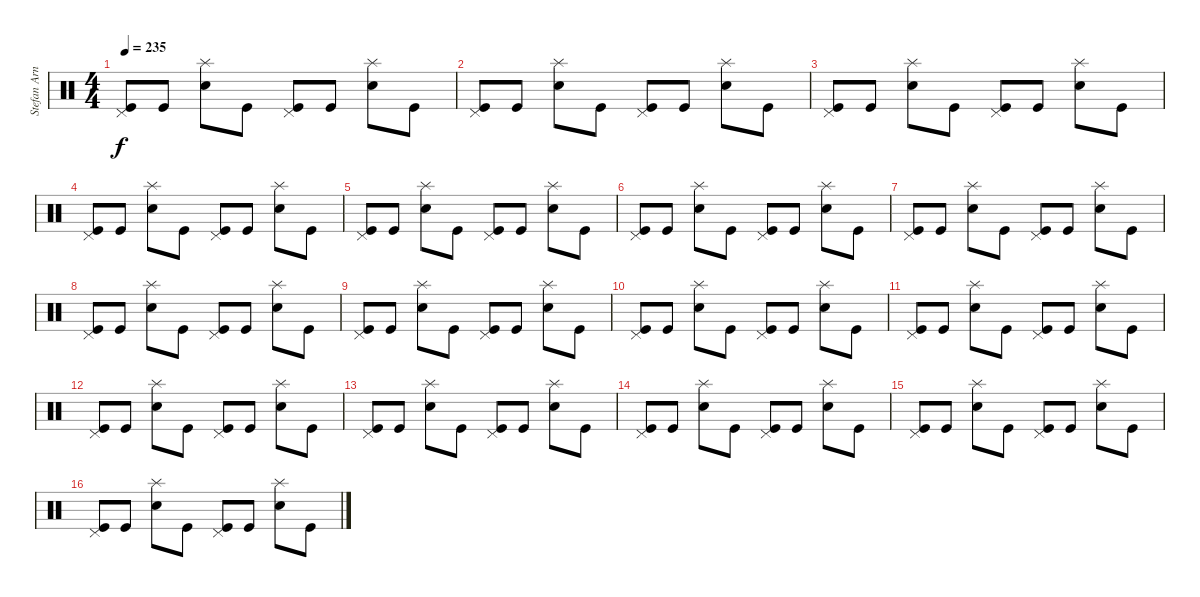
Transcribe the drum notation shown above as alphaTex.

\track ("Stefan Arnold" "Stefan Arn") {instrument percussion}
\staff {score}
\articulation defaults
\ts (4 4)
\tempo 235
\clef neutral
\ks c
("Kick (hit)" "Pedal Hi-Hat (hit)").8{dy f} "Kick (hit)".8 ("Electric Snare (hit)" "Splash (hit)").8 "Kick (hit)".8 ("Kick (hit)" "Pedal Hi-Hat (hit)").8 "Kick (hit)".8 ("Electric Snare (hit)" "Splash (hit)").8 "Kick (hit)".8 |
("Kick (hit)" "Pedal Hi-Hat (hit)").8 "Kick (hit)".8 ("Electric Snare (hit)" "Splash (hit)").8 "Kick (hit)".8 ("Kick (hit)" "Pedal Hi-Hat (hit)").8 "Kick (hit)".8 ("Electric Snare (hit)" "Splash (hit)").8 "Kick (hit)".8 |
("Kick (hit)" "Pedal Hi-Hat (hit)").8 "Kick (hit)".8 ("Electric Snare (hit)" "Splash (hit)").8 "Kick (hit)".8 ("Kick (hit)" "Pedal Hi-Hat (hit)").8 "Kick (hit)".8 ("Electric Snare (hit)" "Splash (hit)").8 "Kick (hit)".8 |
("Kick (hit)" "Pedal Hi-Hat (hit)").8 "Kick (hit)".8 ("Electric Snare (hit)" "Splash (hit)").8 "Kick (hit)".8 ("Kick (hit)" "Pedal Hi-Hat (hit)").8 "Kick (hit)".8 ("Electric Snare (hit)" "Splash (hit)").8 "Kick (hit)".8 |
("Kick (hit)" "Pedal Hi-Hat (hit)").8 "Kick (hit)".8 ("Electric Snare (hit)" "Splash (hit)").8 "Kick (hit)".8 ("Kick (hit)" "Pedal Hi-Hat (hit)").8 "Kick (hit)".8 ("Electric Snare (hit)" "Splash (hit)").8 "Kick (hit)".8 |
("Kick (hit)" "Pedal Hi-Hat (hit)").8 "Kick (hit)".8 ("Electric Snare (hit)" "Splash (hit)").8 "Kick (hit)".8 ("Kick (hit)" "Pedal Hi-Hat (hit)").8 "Kick (hit)".8 ("Electric Snare (hit)" "Splash (hit)").8 "Kick (hit)".8 |
("Kick (hit)" "Pedal Hi-Hat (hit)").8 "Kick (hit)".8 ("Electric Snare (hit)" "Splash (hit)").8 "Kick (hit)".8 ("Kick (hit)" "Pedal Hi-Hat (hit)").8 "Kick (hit)".8 ("Electric Snare (hit)" "Splash (hit)").8 "Kick (hit)".8 |
("Kick (hit)" "Pedal Hi-Hat (hit)").8 "Kick (hit)".8 ("Electric Snare (hit)" "Splash (hit)").8 "Kick (hit)".8 ("Kick (hit)" "Pedal Hi-Hat (hit)").8 "Kick (hit)".8 ("Electric Snare (hit)" "Splash (hit)").8 "Kick (hit)".8 |
("Kick (hit)" "Pedal Hi-Hat (hit)").8 "Kick (hit)".8 ("Electric Snare (hit)" "Splash (hit)").8 "Kick (hit)".8 ("Kick (hit)" "Pedal Hi-Hat (hit)").8 "Kick (hit)".8 ("Electric Snare (hit)" "Splash (hit)").8 "Kick (hit)".8 |
("Kick (hit)" "Pedal Hi-Hat (hit)").8 "Kick (hit)".8 ("Electric Snare (hit)" "Splash (hit)").8 "Kick (hit)".8 ("Kick (hit)" "Pedal Hi-Hat (hit)").8 "Kick (hit)".8 ("Electric Snare (hit)" "Splash (hit)").8 "Kick (hit)".8 |
("Kick (hit)" "Pedal Hi-Hat (hit)").8 "Kick (hit)".8 ("Electric Snare (hit)" "Splash (hit)").8 "Kick (hit)".8 ("Kick (hit)" "Pedal Hi-Hat (hit)").8 "Kick (hit)".8 ("Electric Snare (hit)" "Splash (hit)").8 "Kick (hit)".8 |
("Kick (hit)" "Pedal Hi-Hat (hit)").8 "Kick (hit)".8 ("Electric Snare (hit)" "Splash (hit)").8 "Kick (hit)".8 ("Kick (hit)" "Pedal Hi-Hat (hit)").8 "Kick (hit)".8 ("Electric Snare (hit)" "Splash (hit)").8 "Kick (hit)".8 |
("Kick (hit)" "Pedal Hi-Hat (hit)").8 "Kick (hit)".8 ("Electric Snare (hit)" "Splash (hit)").8 "Kick (hit)".8 ("Kick (hit)" "Pedal Hi-Hat (hit)").8 "Kick (hit)".8 ("Electric Snare (hit)" "Splash (hit)").8 "Kick (hit)".8 |
("Kick (hit)" "Pedal Hi-Hat (hit)").8 "Kick (hit)".8 ("Electric Snare (hit)" "Splash (hit)").8 "Kick (hit)".8 ("Kick (hit)" "Pedal Hi-Hat (hit)").8 "Kick (hit)".8 ("Electric Snare (hit)" "Splash (hit)").8 "Kick (hit)".8 |
("Kick (hit)" "Pedal Hi-Hat (hit)").8 "Kick (hit)".8 ("Electric Snare (hit)" "Splash (hit)").8 "Kick (hit)".8 ("Kick (hit)" "Pedal Hi-Hat (hit)").8 "Kick (hit)".8 ("Electric Snare (hit)" "Splash (hit)").8 "Kick (hit)".8 |
("Kick (hit)" "Pedal Hi-Hat (hit)").8 "Kick (hit)".8 ("Electric Snare (hit)" "Splash (hit)").8 "Kick (hit)".8 ("Kick (hit)" "Pedal Hi-Hat (hit)").8 "Kick (hit)".8 ("Electric Snare (hit)" "Splash (hit)").8 "Kick (hit)".8
